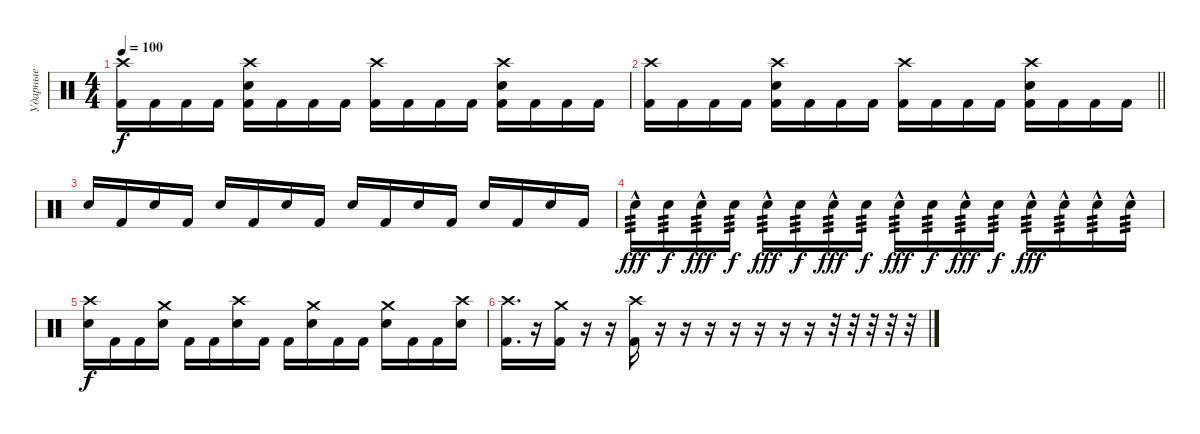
\track ("Ударные" "Ударные") {instrument percussion}
\staff {score}
\articulation defaults
\ts (4 4)
\tempo 100
\clef neutral
\ks c
("Crash high (hit)" "Kick (hit) 2").16{dy f} "Kick (hit) 2".16 "Kick (hit) 2".16 "Kick (hit) 2".16 ("Crash high (hit)" "Electric Snare (hit)" "Kick (hit) 2").16 "Kick (hit) 2".16 "Kick (hit) 2".16 "Kick (hit) 2".16 ("Crash high (hit)" "Kick (hit) 2").16 "Kick (hit) 2".16 "Kick (hit) 2".16 "Kick (hit) 2".16 ("Crash high (hit)" "Electric Snare (hit)" "Kick (hit) 2").16 "Kick (hit) 2".16 "Kick (hit) 2".16 "Kick (hit) 2".16 |
\barLineRight lightlight
("Crash high (hit)" "Kick (hit) 2").16 "Kick (hit) 2".16 "Kick (hit) 2".16 "Kick (hit) 2".16 ("Crash high (hit)" "Electric Snare (hit)" "Kick (hit) 2").16 "Kick (hit) 2".16 "Kick (hit) 2".16 "Kick (hit) 2".16 ("Crash high (hit)" "Kick (hit) 2").16 "Kick (hit) 2".16 "Kick (hit) 2".16 "Kick (hit) 2".16 ("Crash high (hit)" "Electric Snare (hit)" "Kick (hit) 2").16 "Kick (hit) 2".16 "Kick (hit) 2".16 "Kick (hit) 2".16 |
"Electric Snare (hit)".16 "Kick (hit) 2".16 "Electric Snare (hit)".16 "Kick (hit) 2".16 "Electric Snare (hit)".16 "Kick (hit) 2".16 "Electric Snare (hit)".16 "Kick (hit) 2".16 "Electric Snare (hit)".16 "Kick (hit) 2".16 "Electric Snare (hit)".16 "Kick (hit) 2".16 "Electric Snare (hit)".16 "Kick (hit) 2".16 "Electric Snare (hit)".16 "Kick (hit) 2".16 |
"Electric Snare (hit)"{hac}.16{tp 3 dy fff} "Electric Snare (hit)".16{tp 3 dy f} "Electric Snare (hit)"{hac}.16{tp 3 dy fff} "Electric Snare (hit)".16{tp 3 dy f} "Electric Snare (hit)"{hac}.16{tp 3 dy fff} "Electric Snare (hit)".16{tp 3 dy f} "Electric Snare (hit)"{hac}.16{tp 3 dy fff} "Electric Snare (hit)".16{tp 3 dy f} "Electric Snare (hit)"{hac}.16{tp 3 dy fff} "Electric Snare (hit)".16{tp 3 dy f} "Electric Snare (hit)"{hac}.16{tp 3 dy fff} "Electric Snare (hit)".16{tp 3 dy f} "Electric Snare (hit)"{hac}.16{tp 3 dy fff} "Electric Snare (hit)"{hac}.16{tp 3} "Electric Snare (hit)"{hac}.16{tp 3} "Electric Snare (hit)"{hac}.16{tp 3} |
("Crash high (hit)" "Electric Snare (hit)").16{dy f} "Kick (hit) 2".16 "Kick (hit) 2".16 ("Crash medium (hit)" "Electric Snare (hit)").16 "Kick (hit) 2".16 "Kick (hit) 2".16 ("Crash high (hit)" "Electric Snare (hit)").16 "Kick (hit) 2".16 "Kick (hit) 2".16 ("Crash medium (hit)" "Electric Snare (hit)").16 "Kick (hit) 2".16 "Kick (hit) 2".16 ("Crash medium (hit)" "Electric Snare (hit)").16 "Kick (hit) 2".16 "Kick (hit) 2".16 ("Crash high (hit)" "Electric Snare (hit)").16 |
("Crash high (hit)" "Kick (hit) 2").16{d} r.16 ("Crash medium (hit)" "Kick (hit) 2").16 r.16 r.16 ("Crash high (hit)" "Kick (hit) 2").16 r.16 r.16 r.16 r.16 r.16 r.16 r.16 r.32 r.32 r.32 r.32 r.32
